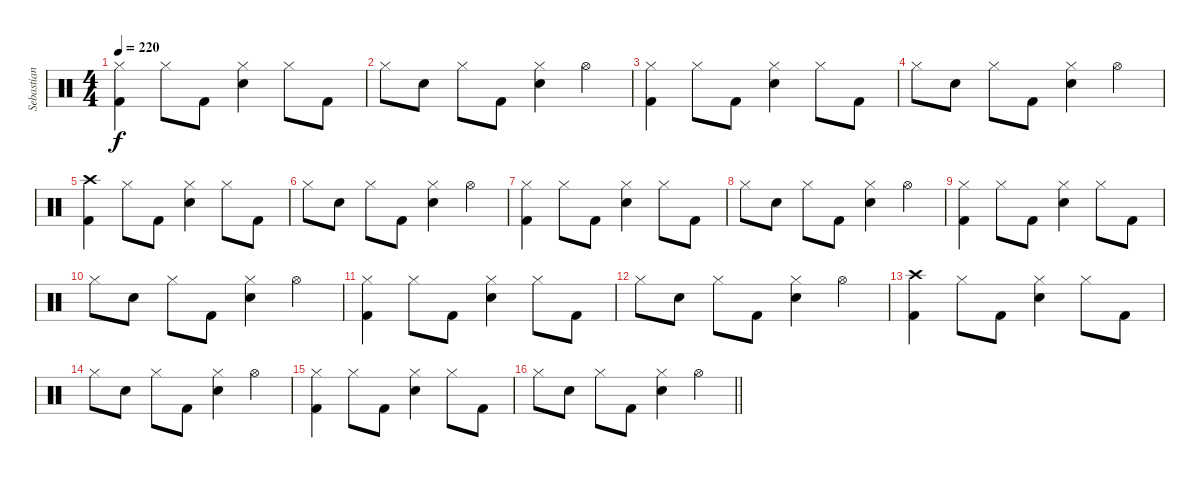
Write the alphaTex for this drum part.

\track ("Sebastian" "Sebastian") {instrument percussion}
\staff {score}
\articulation defaults
\ts (4 4)
\tempo 220
\clef neutral
\ks c
("Hi-Hat (closed)" "Kick (hit) 2").4{dy f} "Hi-Hat (closed)".8 "Kick (hit) 2".8 ("Hi-Hat (closed)" "Snare (hit) 2").4 "Hi-Hat (closed)".8 "Kick (hit) 2".8 |
"Hi-Hat (closed)".8 "Snare (hit) 2".8 "Hi-Hat (closed)".8 "Kick (hit) 2".8 ("Hi-Hat (closed)" "Snare (hit) 2").4 "Hi-Hat (open)".4 |
("Hi-Hat (closed)" "Kick (hit) 2").4 "Hi-Hat (closed)".8 "Kick (hit) 2".8 ("Hi-Hat (closed)" "Snare (hit) 2").4 "Hi-Hat (closed)".8 "Kick (hit) 2".8 |
"Hi-Hat (closed)".8 "Snare (hit) 2".8 "Hi-Hat (closed)".8 "Kick (hit) 2".8 ("Hi-Hat (closed)" "Snare (hit) 2").4 "Hi-Hat (open)".4 |
("Crash high (hit)" "Kick (hit) 2").4 "Hi-Hat (closed)".8 "Kick (hit) 2".8 ("Hi-Hat (closed)" "Snare (hit) 2").4 "Hi-Hat (closed)".8 "Kick (hit) 2".8 |
"Hi-Hat (closed)".8 "Snare (hit) 2".8 "Hi-Hat (closed)".8 "Kick (hit) 2".8 ("Hi-Hat (closed)" "Snare (hit) 2").4 "Hi-Hat (open)".4 |
("Hi-Hat (closed)" "Kick (hit) 2").4 "Hi-Hat (closed)".8 "Kick (hit) 2".8 ("Hi-Hat (closed)" "Snare (hit) 2").4 "Hi-Hat (closed)".8 "Kick (hit) 2".8 |
"Hi-Hat (closed)".8 "Snare (hit) 2".8 "Hi-Hat (closed)".8 "Kick (hit) 2".8 ("Hi-Hat (closed)" "Snare (hit) 2").4 "Hi-Hat (open)".4 |
("Hi-Hat (closed)" "Kick (hit) 2").4 "Hi-Hat (closed)".8 "Kick (hit) 2".8 ("Hi-Hat (closed)" "Snare (hit) 2").4 "Hi-Hat (closed)".8 "Kick (hit) 2".8 |
"Hi-Hat (closed)".8 "Snare (hit) 2".8 "Hi-Hat (closed)".8 "Kick (hit) 2".8 ("Hi-Hat (closed)" "Snare (hit) 2").4 "Hi-Hat (open)".4 |
("Hi-Hat (closed)" "Kick (hit) 2").4 "Hi-Hat (closed)".8 "Kick (hit) 2".8 ("Hi-Hat (closed)" "Snare (hit) 2").4 "Hi-Hat (closed)".8 "Kick (hit) 2".8 |
"Hi-Hat (closed)".8 "Snare (hit) 2".8 "Hi-Hat (closed)".8 "Kick (hit) 2".8 ("Hi-Hat (closed)" "Snare (hit) 2").4 "Hi-Hat (open)".4 |
("Crash high (hit)" "Kick (hit) 2").4 "Hi-Hat (closed)".8 "Kick (hit) 2".8 ("Hi-Hat (closed)" "Snare (hit) 2").4 "Hi-Hat (closed)".8 "Kick (hit) 2".8 |
"Hi-Hat (closed)".8 "Snare (hit) 2".8 "Hi-Hat (closed)".8 "Kick (hit) 2".8 ("Hi-Hat (closed)" "Snare (hit) 2").4 "Hi-Hat (open)".4 |
("Hi-Hat (closed)" "Kick (hit) 2").4 "Hi-Hat (closed)".8 "Kick (hit) 2".8 ("Hi-Hat (closed)" "Snare (hit) 2").4 "Hi-Hat (closed)".8 "Kick (hit) 2".8 |
\barLineRight lightlight "Hi-Hat (closed)".8 "Snare (hit) 2".8 "Hi-Hat (closed)".8 "Kick (hit) 2".8
("Hi-Hat (closed)" "Snare (hit) 2").4 "Hi-Hat (open)".4
